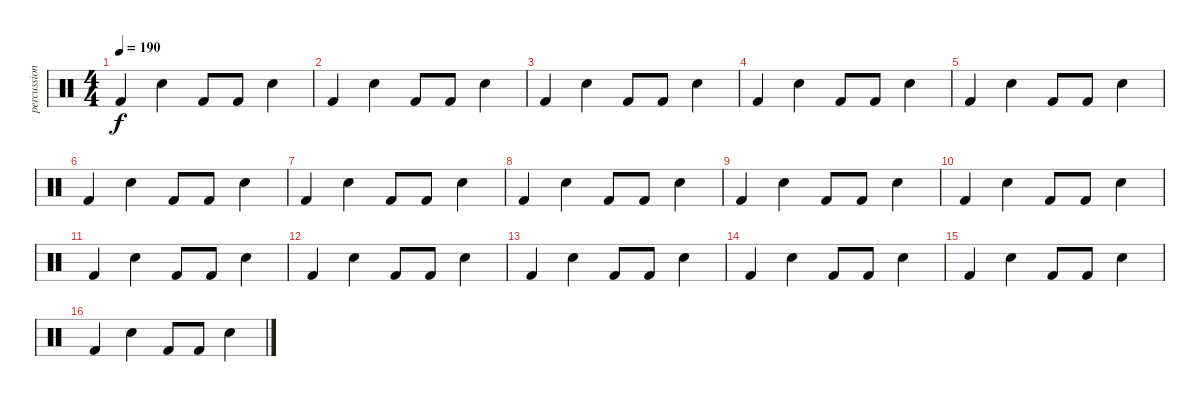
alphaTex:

\track ("percussion" "percussion") {instrument percussion}
\staff {score}
\articulation defaults
\ts (4 4)
\tempo 190
\clef neutral
\ks c "Kick (hit) 2".4{dy f} "Snare (hit) 2".4 "Kick (hit) 2".8 "Kick (hit) 2".8 "Snare (hit) 2".4
|
"Kick (hit) 2".4 "Snare (hit) 2".4 "Kick (hit) 2".8 "Kick (hit) 2".8 "Snare (hit) 2".4 |
"Kick (hit) 2".4 "Snare (hit) 2".4 "Kick (hit) 2".8 "Kick (hit) 2".8 "Snare (hit) 2".4 |
"Kick (hit) 2".4 "Snare (hit) 2".4 "Kick (hit) 2".8 "Kick (hit) 2".8 "Snare (hit) 2".4 |
"Kick (hit) 2".4 "Snare (hit) 2".4 "Kick (hit) 2".8 "Kick (hit) 2".8 "Snare (hit) 2".4 |
"Kick (hit) 2".4 "Snare (hit) 2".4 "Kick (hit) 2".8 "Kick (hit) 2".8 "Snare (hit) 2".4 |
"Kick (hit) 2".4 "Snare (hit) 2".4 "Kick (hit) 2".8 "Kick (hit) 2".8 "Snare (hit) 2".4 |
"Kick (hit) 2".4 "Snare (hit) 2".4 "Kick (hit) 2".8 "Kick (hit) 2".8 "Snare (hit) 2".4 |
"Kick (hit) 2".4 "Snare (hit) 2".4 "Kick (hit) 2".8 "Kick (hit) 2".8 "Snare (hit) 2".4 |
"Kick (hit) 2".4 "Snare (hit) 2".4 "Kick (hit) 2".8 "Kick (hit) 2".8 "Snare (hit) 2".4 |
"Kick (hit) 2".4 "Snare (hit) 2".4 "Kick (hit) 2".8 "Kick (hit) 2".8 "Snare (hit) 2".4 |
"Kick (hit) 2".4 "Snare (hit) 2".4 "Kick (hit) 2".8 "Kick (hit) 2".8 "Snare (hit) 2".4 |
"Kick (hit) 2".4 "Snare (hit) 2".4 "Kick (hit) 2".8 "Kick (hit) 2".8 "Snare (hit) 2".4 |
"Kick (hit) 2".4 "Snare (hit) 2".4 "Kick (hit) 2".8 "Kick (hit) 2".8 "Snare (hit) 2".4 |
"Kick (hit) 2".4 "Snare (hit) 2".4 "Kick (hit) 2".8 "Kick (hit) 2".8 "Snare (hit) 2".4 |
"Kick (hit) 2".4 "Snare (hit) 2".4 "Kick (hit) 2".8 "Kick (hit) 2".8 "Snare (hit) 2".4
